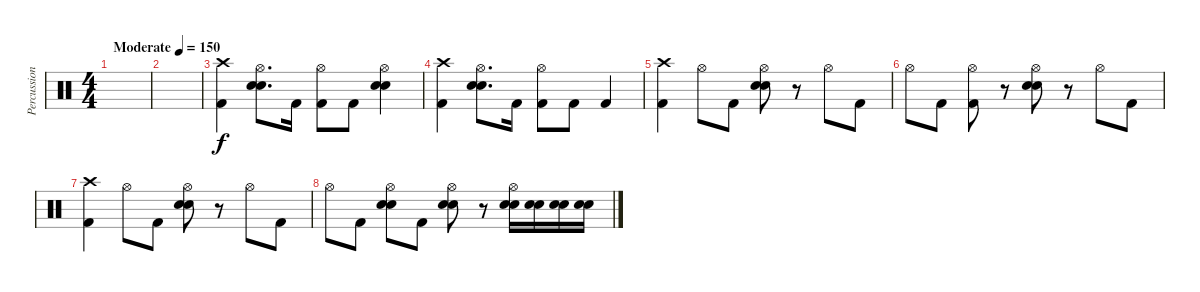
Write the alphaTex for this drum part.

\track ("Percussion" "Percussion") {instrument percussion}
\staff {score}
\articulation defaults
\ts (4 4)
\tempo (150 "Moderate")
\clef neutral
\ks c
|
|
("Crash high (hit)" "Kick (hit) 2").4 ("Hi-Hat (open)" "Snare (hit) 2" "Electric Snare (hit)").8{d} "Kick (hit) 2".16 ("Hi-Hat (open)" "Kick (hit) 2").8 "Kick (hit) 2".8 ("Hi-Hat (open)" "Snare (hit) 2" "Electric Snare (hit)").4 |
("Crash high (hit)" "Kick (hit) 2").4 ("Hi-Hat (open)" "Snare (hit) 2" "Electric Snare (hit)").8{d} "Kick (hit) 2".16 ("Hi-Hat (open)" "Kick (hit) 2").8 "Kick (hit) 2".8 "Kick (hit) 2".4 |
("Crash high (hit)" "Kick (hit) 2").4 "Hi-Hat (open)".8 "Kick (hit) 2".8 ("Hi-Hat (open)" "Snare (hit) 2" "Electric Snare (hit)").8 r.8 "Hi-Hat (open)".8 "Kick (hit) 2".8 |
"Hi-Hat (open)".8 "Kick (hit) 2".8 ("Hi-Hat (open)" "Kick (hit) 2").8 r.8 ("Hi-Hat (open)" "Snare (hit) 2" "Electric Snare (hit)").8 r.8 "Hi-Hat (open)".8 "Kick (hit) 2".8 |
("Crash high (hit)" "Kick (hit) 2").4 "Hi-Hat (open)".8 "Kick (hit) 2".8 ("Hi-Hat (open)" "Snare (hit) 2" "Electric Snare (hit)").8 r.8 "Hi-Hat (open)".8 "Kick (hit) 2".8 |
"Hi-Hat (open)".8 "Kick (hit) 2".8 ("Hi-Hat (open)" "Snare (hit) 2" "Electric Snare (hit)").8 "Kick (hit) 2".8 ("Hi-Hat (open)" "Snare (hit) 2" "Electric Snare (hit)").8 r.8 ("Hi-Hat (open)" "Snare (hit) 2" "Electric Snare (hit)").16 ("Snare (hit) 2" "Electric Snare (hit)").16 ("Snare (hit) 2" "Electric Snare (hit)").16 ("Snare (hit) 2" "Electric Snare (hit)").16
